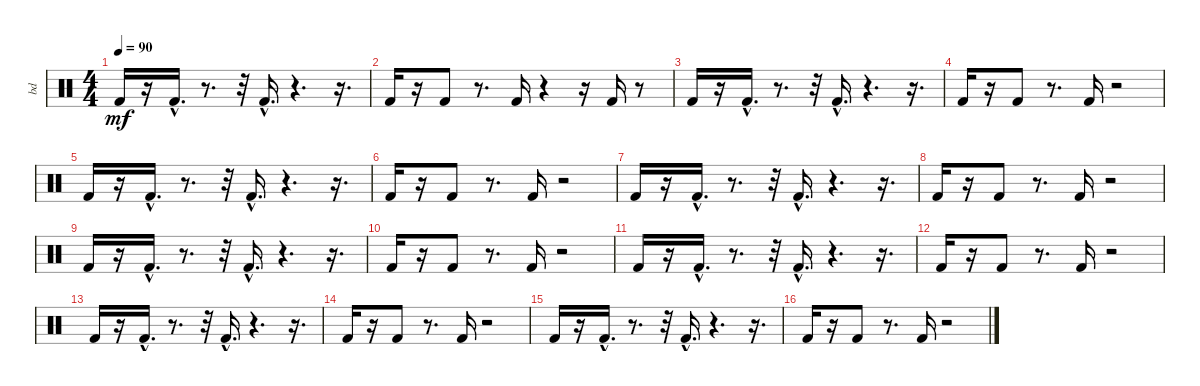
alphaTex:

\track ("bd" "bd") {instrument percussion}
\staff {score}
\articulation defaults
\ts (4 4)
\tempo 90
\clef neutral
\ks c "Kick (hit) 2".16{dy mf}
r.16 "Kick (hit) 2"{hac}.16{d} r.8{d} r.32 "Kick (hit) 2"{hac}.16{d} r.4{d} r.16{d} |
"Kick (hit) 2".16 r.16 "Kick (hit) 2".8 r.8{d} "Kick (hit) 2".16 r.4 r.16 "Kick (hit) 2".16 r.8 |
"Kick (hit) 2".16 r.16 "Kick (hit) 2"{hac}.16{d} r.8{d} r.32 "Kick (hit) 2"{hac}.16{d} r.4{d} r.16{d} |
"Kick (hit) 2".16 r.16 "Kick (hit) 2".8 r.8{d} "Kick (hit) 2".16 r.2 |
"Kick (hit) 2".16 r.16 "Kick (hit) 2"{hac}.16{d} r.8{d} r.32 "Kick (hit) 2"{hac}.16{d} r.4{d} r.16{d} |
"Kick (hit) 2".16 r.16 "Kick (hit) 2".8 r.8{d} "Kick (hit) 2".16 r.2 |
"Kick (hit) 2".16 r.16 "Kick (hit) 2"{hac}.16{d} r.8{d} r.32 "Kick (hit) 2"{hac}.16{d} r.4{d} r.16{d} |
"Kick (hit) 2".16 r.16 "Kick (hit) 2".8 r.8{d} "Kick (hit) 2".16 r.2 |
"Kick (hit) 2".16 r.16 "Kick (hit) 2"{hac}.16{d} r.8{d} r.32 "Kick (hit) 2"{hac}.16{d} r.4{d} r.16{d} |
"Kick (hit) 2".16 r.16 "Kick (hit) 2".8 r.8{d} "Kick (hit) 2".16 r.2 |
"Kick (hit) 2".16 r.16 "Kick (hit) 2"{hac}.16{d} r.8{d} r.32 "Kick (hit) 2"{hac}.16{d} r.4{d} r.16{d} |
"Kick (hit) 2".16 r.16 "Kick (hit) 2".8 r.8{d} "Kick (hit) 2".16 r.2 |
"Kick (hit) 2".16 r.16 "Kick (hit) 2"{hac}.16{d} r.8{d} r.32 "Kick (hit) 2"{hac}.16{d} r.4{d} r.16{d} |
"Kick (hit) 2".16 r.16 "Kick (hit) 2".8 r.8{d} "Kick (hit) 2".16 r.2 |
"Kick (hit) 2".16 r.16 "Kick (hit) 2"{hac}.16{d} r.8{d} r.32 "Kick (hit) 2"{hac}.16{d} r.4{d} r.16{d} |
"Kick (hit) 2".16 r.16 "Kick (hit) 2".8 r.8{d} "Kick (hit) 2".16 r.2
